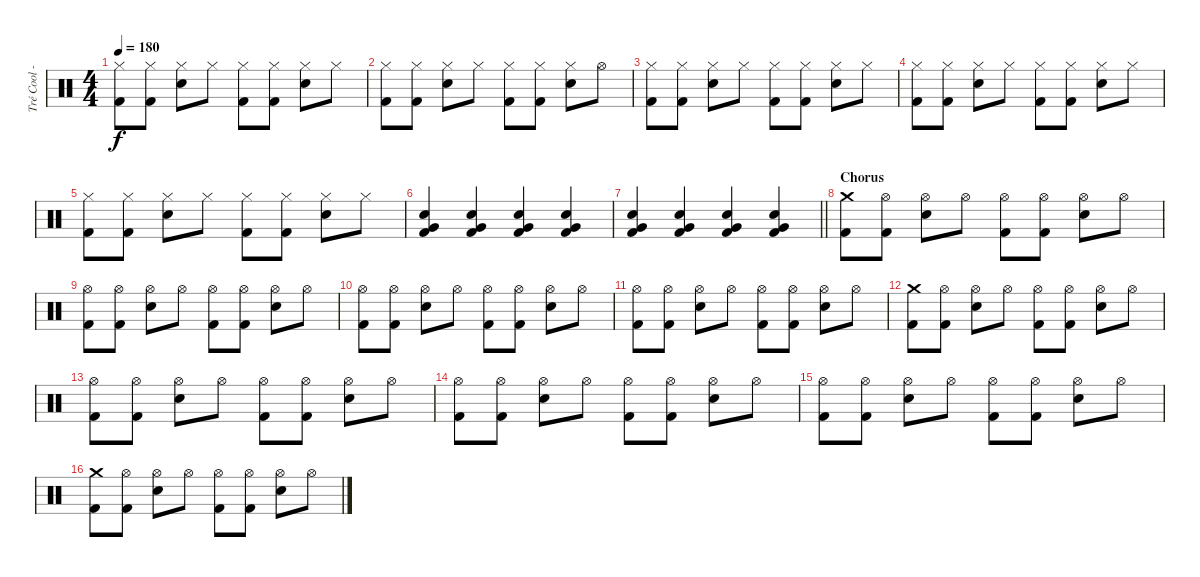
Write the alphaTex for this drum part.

\track ("Tré Cool - Drums" "Tré Cool -") {instrument percussion}
\staff {score}
\articulation defaults
\ts (4 4)
\tempo 180
\clef neutral
\ks c
("Hi-Hat (closed)" "Kick (hit) 2").8{dy f} ("Hi-Hat (closed)" "Kick (hit) 2").8 ("Hi-Hat (closed)" "Electric Snare (hit)").8 "Hi-Hat (closed)".8 ("Hi-Hat (closed)" "Kick (hit) 2").8 ("Hi-Hat (closed)" "Kick (hit) 2").8 ("Hi-Hat (closed)" "Electric Snare (hit)").8 "Hi-Hat (closed)".8 |
("Hi-Hat (closed)" "Kick (hit) 2").8 ("Hi-Hat (closed)" "Kick (hit) 2").8 ("Hi-Hat (closed)" "Electric Snare (hit)").8 "Hi-Hat (closed)".8 ("Hi-Hat (closed)" "Kick (hit) 2").8 ("Hi-Hat (closed)" "Kick (hit) 2").8 ("Hi-Hat (closed)" "Electric Snare (hit)").8 "Hi-Hat (open)".8 |
("Hi-Hat (closed)" "Kick (hit) 2").8 ("Hi-Hat (closed)" "Kick (hit) 2").8 ("Hi-Hat (closed)" "Electric Snare (hit)").8 "Hi-Hat (closed)".8 ("Hi-Hat (closed)" "Kick (hit) 2").8 ("Hi-Hat (closed)" "Kick (hit) 2").8 ("Hi-Hat (closed)" "Electric Snare (hit)").8 "Hi-Hat (closed)".8 |
("Hi-Hat (closed)" "Kick (hit) 2").8 ("Hi-Hat (closed)" "Kick (hit) 2").8 ("Hi-Hat (closed)" "Electric Snare (hit)").8 "Hi-Hat (closed)".8 ("Hi-Hat (closed)" "Kick (hit) 2").8 ("Hi-Hat (closed)" "Kick (hit) 2").8 ("Hi-Hat (closed)" "Electric Snare (hit)").8 "Hi-Hat (closed)".8 |
("Hi-Hat (closed)" "Kick (hit) 2").8 ("Hi-Hat (closed)" "Kick (hit) 2").8 ("Hi-Hat (closed)" "Electric Snare (hit)").8 "Hi-Hat (closed)".8 ("Hi-Hat (closed)" "Kick (hit) 2").8 ("Hi-Hat (closed)" "Kick (hit) 2").8 ("Hi-Hat (closed)" "Electric Snare (hit)").8 "Hi-Hat (closed)".8 |
("Very Low Tom (hit)" "Electric Snare (hit)" "Kick (hit) 2").4{volume 13 balance 8} ("Very Low Tom (hit)" "Electric Snare (hit)" "Kick (hit) 2").4 ("Very Low Tom (hit)" "Electric Snare (hit)" "Kick (hit) 2").4 ("Very Low Tom (hit)" "Electric Snare (hit)" "Kick (hit) 2").4 |
\barLineRight lightlight
("Very Low Tom (hit)" "Electric Snare (hit)" "Kick (hit) 2").4 ("Very Low Tom (hit)" "Electric Snare (hit)" "Kick (hit) 2").4 ("Very Low Tom (hit)" "Electric Snare (hit)" "Kick (hit) 2").4 ("Very Low Tom (hit)" "Electric Snare (hit)" "Kick (hit) 2").4 |
\section ("" "Chorus")
("Crash medium (hit)" "Kick (hit) 2").8 ("Hi-Hat (open)" "Kick (hit) 2").8 ("Hi-Hat (open)" "Electric Snare (hit)").8 "Hi-Hat (open)".8 ("Hi-Hat (open)" "Kick (hit) 2").8 ("Hi-Hat (open)" "Kick (hit) 2").8 ("Hi-Hat (open)" "Electric Snare (hit)").8 "Hi-Hat (open)".8 |
("Hi-Hat (open)" "Kick (hit) 2").8 ("Hi-Hat (open)" "Kick (hit) 2").8 ("Hi-Hat (open)" "Electric Snare (hit)").8 "Hi-Hat (open)".8 ("Hi-Hat (open)" "Kick (hit) 2").8 ("Hi-Hat (open)" "Kick (hit) 2").8 ("Hi-Hat (open)" "Electric Snare (hit)").8 "Hi-Hat (open)".8 |
("Hi-Hat (open)" "Kick (hit) 2").8 ("Hi-Hat (open)" "Kick (hit) 2").8 ("Hi-Hat (open)" "Electric Snare (hit)").8 "Hi-Hat (open)".8 ("Hi-Hat (open)" "Kick (hit) 2").8 ("Hi-Hat (open)" "Kick (hit) 2").8 ("Hi-Hat (open)" "Electric Snare (hit)").8 "Hi-Hat (open)".8 |
("Hi-Hat (open)" "Kick (hit) 2").8 ("Hi-Hat (open)" "Kick (hit) 2").8 ("Hi-Hat (open)" "Electric Snare (hit)").8 "Hi-Hat (open)".8 ("Hi-Hat (open)" "Kick (hit) 2").8 ("Hi-Hat (open)" "Kick (hit) 2").8 ("Hi-Hat (open)" "Electric Snare (hit)").8 "Hi-Hat (open)".8 |
("Crash medium (hit)" "Kick (hit) 2").8 ("Hi-Hat (open)" "Kick (hit) 2").8 ("Hi-Hat (open)" "Electric Snare (hit)").8 "Hi-Hat (open)".8 ("Hi-Hat (open)" "Kick (hit) 2").8 ("Hi-Hat (open)" "Kick (hit) 2").8 ("Hi-Hat (open)" "Electric Snare (hit)").8 "Hi-Hat (open)".8 |
("Hi-Hat (open)" "Kick (hit) 2").8 ("Hi-Hat (open)" "Kick (hit) 2").8 ("Hi-Hat (open)" "Electric Snare (hit)").8 "Hi-Hat (open)".8 ("Hi-Hat (open)" "Kick (hit) 2").8 ("Hi-Hat (open)" "Kick (hit) 2").8 ("Hi-Hat (open)" "Electric Snare (hit)").8 "Hi-Hat (open)".8 |
("Hi-Hat (open)" "Kick (hit) 2").8 ("Hi-Hat (open)" "Kick (hit) 2").8 ("Hi-Hat (open)" "Electric Snare (hit)").8 "Hi-Hat (open)".8 ("Hi-Hat (open)" "Kick (hit) 2").8 ("Hi-Hat (open)" "Kick (hit) 2").8 ("Hi-Hat (open)" "Electric Snare (hit)").8 "Hi-Hat (open)".8 |
("Hi-Hat (open)" "Kick (hit) 2").8 ("Hi-Hat (open)" "Kick (hit) 2").8 ("Hi-Hat (open)" "Electric Snare (hit)").8 "Hi-Hat (open)".8 ("Hi-Hat (open)" "Kick (hit) 2").8 ("Hi-Hat (open)" "Kick (hit) 2").8 ("Hi-Hat (open)" "Electric Snare (hit)").8 "Hi-Hat (open)".8 |
("Crash medium (hit)" "Kick (hit) 2").8 ("Hi-Hat (open)" "Kick (hit) 2").8 ("Hi-Hat (open)" "Electric Snare (hit)").8 "Hi-Hat (open)".8 ("Hi-Hat (open)" "Kick (hit) 2").8 ("Hi-Hat (open)" "Kick (hit) 2").8 ("Hi-Hat (open)" "Electric Snare (hit)").8 "Hi-Hat (open)".8
